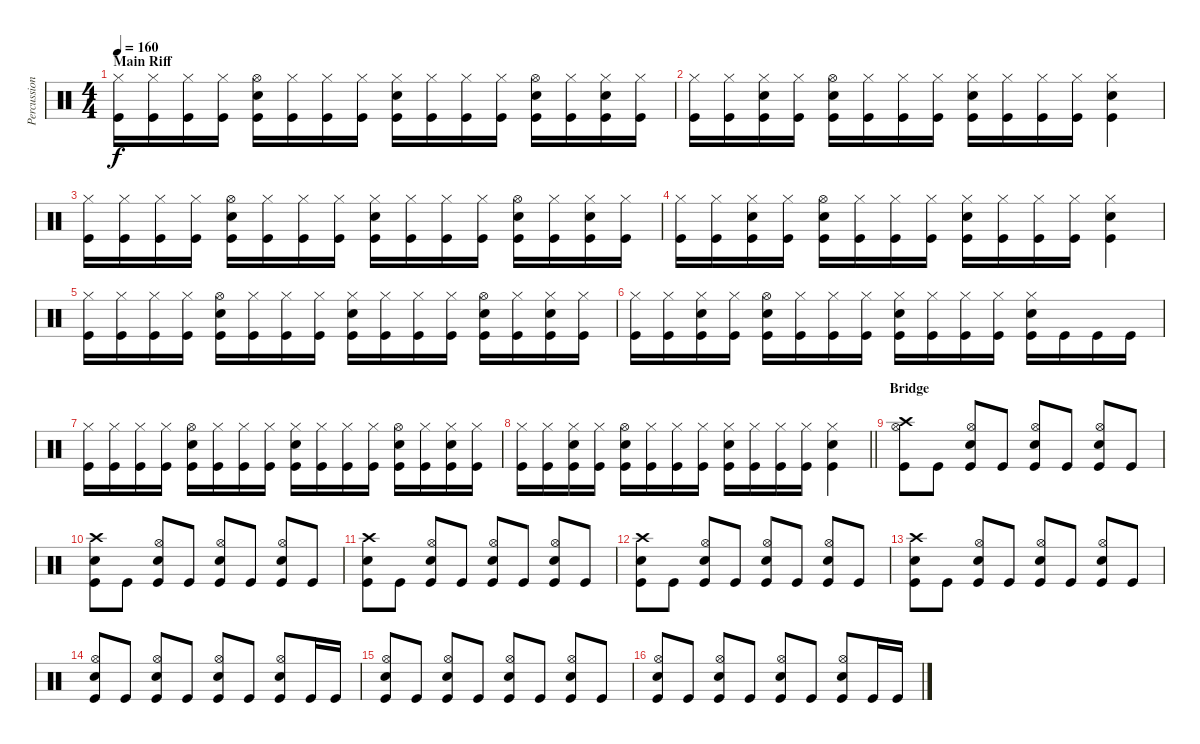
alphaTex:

\track ("Percussion" "Percussion") {instrument percussion}
\staff {score}
\articulation defaults
\ts (4 4)
\section ("" "Main Riff")
\tempo 160
\clef neutral
\ks c
("Hi-Hat (closed)" "Kick (hit)").16{dy f} ("Hi-Hat (closed)" "Kick (hit)").16 ("Hi-Hat (closed)" "Kick (hit)").16 ("Hi-Hat (closed)" "Kick (hit)").16 ("Hi-Hat (open)" "Electric Snare (hit)" "Kick (hit)").16 ("Hi-Hat (closed)" "Kick (hit)").16 ("Hi-Hat (closed)" "Kick (hit)").16 ("Hi-Hat (closed)" "Kick (hit)").16 ("Hi-Hat (closed)" "Electric Snare (hit)" "Kick (hit)").16 ("Hi-Hat (closed)" "Kick (hit)").16 ("Hi-Hat (closed)" "Kick (hit)").16 ("Hi-Hat (closed)" "Kick (hit)").16 ("Hi-Hat (open)" "Electric Snare (hit)" "Kick (hit)").16 ("Hi-Hat (closed)" "Kick (hit)").16 ("Hi-Hat (closed)" "Electric Snare (hit)" "Kick (hit)").16 ("Hi-Hat (closed)" "Kick (hit)").16 |
("Hi-Hat (closed)" "Kick (hit)").16 ("Hi-Hat (closed)" "Kick (hit)").16 ("Hi-Hat (closed)" "Electric Snare (hit)" "Kick (hit)").16 ("Hi-Hat (closed)" "Kick (hit)").16 ("Hi-Hat (open)" "Electric Snare (hit)" "Kick (hit)").16 ("Hi-Hat (closed)" "Kick (hit)").16 ("Hi-Hat (closed)" "Kick (hit)").16 ("Hi-Hat (closed)" "Kick (hit)").16 ("Hi-Hat (closed)" "Electric Snare (hit)" "Kick (hit)").16 ("Hi-Hat (closed)" "Kick (hit)").16 ("Hi-Hat (closed)" "Kick (hit)").16 ("Hi-Hat (closed)" "Kick (hit)").16 ("Hi-Hat (closed)" "Electric Snare (hit)" "Kick (hit)").4 |
("Hi-Hat (closed)" "Kick (hit)").16 ("Hi-Hat (closed)" "Kick (hit)").16 ("Hi-Hat (closed)" "Kick (hit)").16 ("Hi-Hat (closed)" "Kick (hit)").16 ("Hi-Hat (open)" "Electric Snare (hit)" "Kick (hit)").16 ("Hi-Hat (closed)" "Kick (hit)").16 ("Hi-Hat (closed)" "Kick (hit)").16 ("Hi-Hat (closed)" "Kick (hit)").16 ("Hi-Hat (closed)" "Electric Snare (hit)" "Kick (hit)").16 ("Hi-Hat (closed)" "Kick (hit)").16 ("Hi-Hat (closed)" "Kick (hit)").16 ("Hi-Hat (closed)" "Kick (hit)").16 ("Hi-Hat (open)" "Electric Snare (hit)" "Kick (hit)").16 ("Hi-Hat (closed)" "Kick (hit)").16 ("Hi-Hat (closed)" "Electric Snare (hit)" "Kick (hit)").16 ("Hi-Hat (closed)" "Kick (hit)").16 |
("Hi-Hat (closed)" "Kick (hit)").16 ("Hi-Hat (closed)" "Kick (hit)").16 ("Hi-Hat (closed)" "Electric Snare (hit)" "Kick (hit)").16 ("Hi-Hat (closed)" "Kick (hit)").16 ("Hi-Hat (open)" "Electric Snare (hit)" "Kick (hit)").16 ("Hi-Hat (closed)" "Kick (hit)").16 ("Hi-Hat (closed)" "Kick (hit)").16 ("Hi-Hat (closed)" "Kick (hit)").16 ("Hi-Hat (closed)" "Electric Snare (hit)" "Kick (hit)").16 ("Hi-Hat (closed)" "Kick (hit)").16 ("Hi-Hat (closed)" "Kick (hit)").16 ("Hi-Hat (closed)" "Kick (hit)").16 ("Hi-Hat (closed)" "Electric Snare (hit)" "Kick (hit)").4 |
("Hi-Hat (closed)" "Kick (hit)").16 ("Hi-Hat (closed)" "Kick (hit)").16 ("Hi-Hat (closed)" "Kick (hit)").16 ("Hi-Hat (closed)" "Kick (hit)").16 ("Hi-Hat (open)" "Electric Snare (hit)" "Kick (hit)").16 ("Hi-Hat (closed)" "Kick (hit)").16 ("Hi-Hat (closed)" "Kick (hit)").16 ("Hi-Hat (closed)" "Kick (hit)").16 ("Hi-Hat (closed)" "Electric Snare (hit)" "Kick (hit)").16 ("Hi-Hat (closed)" "Kick (hit)").16 ("Hi-Hat (closed)" "Kick (hit)").16 ("Hi-Hat (closed)" "Kick (hit)").16 ("Hi-Hat (open)" "Electric Snare (hit)" "Kick (hit)").16 ("Hi-Hat (closed)" "Kick (hit)").16 ("Hi-Hat (closed)" "Electric Snare (hit)" "Kick (hit)").16 ("Hi-Hat (closed)" "Kick (hit)").16 |
("Hi-Hat (closed)" "Kick (hit)").16 ("Hi-Hat (closed)" "Kick (hit)").16 ("Hi-Hat (closed)" "Electric Snare (hit)" "Kick (hit)").16 ("Hi-Hat (closed)" "Kick (hit)").16 ("Hi-Hat (open)" "Electric Snare (hit)" "Kick (hit)").16 ("Hi-Hat (closed)" "Kick (hit)").16 ("Hi-Hat (closed)" "Kick (hit)").16 ("Hi-Hat (closed)" "Kick (hit)").16 ("Hi-Hat (closed)" "Electric Snare (hit)" "Kick (hit)").16 ("Hi-Hat (closed)" "Kick (hit)").16 ("Hi-Hat (closed)" "Kick (hit)").16 ("Hi-Hat (closed)" "Kick (hit)").16 ("Hi-Hat (closed)" "Electric Snare (hit)" "Kick (hit)").16 "Kick (hit)".16 "Kick (hit)".16 "Kick (hit)".16 |
("Hi-Hat (closed)" "Kick (hit)").16 ("Hi-Hat (closed)" "Kick (hit)").16 ("Hi-Hat (closed)" "Kick (hit)").16 ("Hi-Hat (closed)" "Kick (hit)").16 ("Hi-Hat (open)" "Electric Snare (hit)" "Kick (hit)").16 ("Hi-Hat (closed)" "Kick (hit)").16 ("Hi-Hat (closed)" "Kick (hit)").16 ("Hi-Hat (closed)" "Kick (hit)").16 ("Hi-Hat (closed)" "Electric Snare (hit)" "Kick (hit)").16 ("Hi-Hat (closed)" "Kick (hit)").16 ("Hi-Hat (closed)" "Kick (hit)").16 ("Hi-Hat (closed)" "Kick (hit)").16 ("Hi-Hat (open)" "Electric Snare (hit)" "Kick (hit)").16 ("Hi-Hat (closed)" "Kick (hit)").16 ("Hi-Hat (closed)" "Electric Snare (hit)" "Kick (hit)").16 ("Hi-Hat (closed)" "Kick (hit)").16 |
\barLineRight lightlight
("Hi-Hat (closed)" "Kick (hit)").16 ("Hi-Hat (closed)" "Kick (hit)").16 ("Hi-Hat (closed)" "Electric Snare (hit)" "Kick (hit)").16 ("Hi-Hat (closed)" "Kick (hit)").16 ("Hi-Hat (open)" "Electric Snare (hit)" "Kick (hit)").16 ("Hi-Hat (closed)" "Kick (hit)").16 ("Hi-Hat (closed)" "Kick (hit)").16 ("Hi-Hat (closed)" "Kick (hit)").16 ("Hi-Hat (closed)" "Electric Snare (hit)" "Kick (hit)").16 ("Hi-Hat (closed)" "Kick (hit)").16 ("Hi-Hat (closed)" "Kick (hit)").16 ("Hi-Hat (closed)" "Kick (hit)").16 ("Hi-Hat (closed)" "Electric Snare (hit)" "Kick (hit)").4 |
\section ("" "Bridge")
("Crash high (hit)" "Hi-Hat (open)" "Kick (hit)").8 "Kick (hit)".8 ("Hi-Hat (open)" "Electric Snare (hit)" "Kick (hit)").8 "Kick (hit)".8 ("Hi-Hat (open)" "Electric Snare (hit)" "Kick (hit)").8 "Kick (hit)".8 ("Hi-Hat (open)" "Electric Snare (hit)" "Kick (hit)").8 "Kick (hit)".8 |
("Crash high (hit)" "Electric Snare (hit)" "Kick (hit)").8 "Kick (hit)".8 ("Hi-Hat (open)" "Electric Snare (hit)" "Kick (hit)").8 "Kick (hit)".8 ("Hi-Hat (open)" "Electric Snare (hit)" "Kick (hit)").8 "Kick (hit)".8 ("Hi-Hat (open)" "Electric Snare (hit)" "Kick (hit)").8 "Kick (hit)".8 |
("Crash high (hit)" "Electric Snare (hit)" "Kick (hit)").8 "Kick (hit)".8 ("Hi-Hat (open)" "Electric Snare (hit)" "Kick (hit)").8 "Kick (hit)".8 ("Hi-Hat (open)" "Electric Snare (hit)" "Kick (hit)").8 "Kick (hit)".8 ("Hi-Hat (open)" "Electric Snare (hit)" "Kick (hit)").8 "Kick (hit)".8 |
("Crash high (hit)" "Electric Snare (hit)" "Kick (hit)").8 "Kick (hit)".8 ("Hi-Hat (open)" "Electric Snare (hit)" "Kick (hit)").8 "Kick (hit)".8 ("Hi-Hat (open)" "Electric Snare (hit)" "Kick (hit)").8 "Kick (hit)".8 ("Hi-Hat (open)" "Electric Snare (hit)" "Kick (hit)").8 "Kick (hit)".8 |
("Crash high (hit)" "Electric Snare (hit)" "Kick (hit)").8 "Kick (hit)".8 ("Hi-Hat (open)" "Electric Snare (hit)" "Kick (hit)").8 "Kick (hit)".8 ("Hi-Hat (open)" "Electric Snare (hit)" "Kick (hit)").8 "Kick (hit)".8 ("Hi-Hat (open)" "Electric Snare (hit)" "Kick (hit)").8 "Kick (hit)".8 |
("Hi-Hat (open)" "Electric Snare (hit)" "Kick (hit)").8 "Kick (hit)".8 ("Hi-Hat (open)" "Electric Snare (hit)" "Kick (hit)").8 "Kick (hit)".8 ("Hi-Hat (open)" "Electric Snare (hit)" "Kick (hit)").8 "Kick (hit)".8 ("Hi-Hat (open)" "Electric Snare (hit)" "Kick (hit)").8 "Kick (hit)".16 "Kick (hit)".16 |
("Hi-Hat (open)" "Electric Snare (hit)" "Kick (hit)").8 "Kick (hit)".8 ("Hi-Hat (open)" "Electric Snare (hit)" "Kick (hit)").8 "Kick (hit)".8 ("Hi-Hat (open)" "Electric Snare (hit)" "Kick (hit)").8 "Kick (hit)".8 ("Hi-Hat (open)" "Electric Snare (hit)" "Kick (hit)").8 "Kick (hit)".8 |
("Hi-Hat (open)" "Electric Snare (hit)" "Kick (hit)").8 "Kick (hit)".8 ("Hi-Hat (open)" "Electric Snare (hit)" "Kick (hit)").8 "Kick (hit)".8 ("Hi-Hat (open)" "Electric Snare (hit)" "Kick (hit)").8 "Kick (hit)".8 ("Hi-Hat (open)" "Electric Snare (hit)" "Kick (hit)").8 "Kick (hit)".16 "Kick (hit)".16
